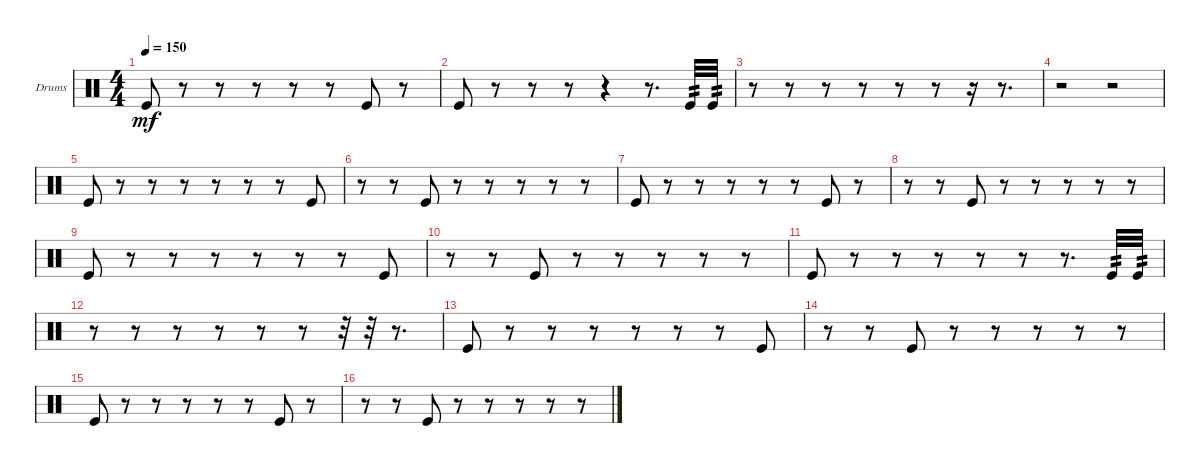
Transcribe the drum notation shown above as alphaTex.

\bracketExtendMode groupsimilarinstruments
\firstSystemTrackNameOrientation horizontal
\otherSystemsTrackNameOrientation horizontal
\track ("Drumkit Kick" "Drums ") {instrument percussion}
\staff {score}
\articulation defaults
\ts (4 4)
\tempo 150
\clef neutral
\scale
0.333333
\ks c "Kick (hit)".8{dy mf}
r.8 r.8 r.8 r.8 r.8 "Kick (hit)".8 r.8 |
\scale
0.333333 "Kick (hit)".8 r.8 r.8 r.8 r.4 r.8{d} "Kick (hit)".32{tp 2} "Kick (hit)".32{tp 2} |
\scale
0.333333 r.8 r.8 r.8 r.8 r.8 r.8 r.16 r.8{d} |
\scale
0.333333 r.2 r.2 |
\scale
0.333333 "Kick (hit)".8 r.8 r.8 r.8 r.8 r.8 r.8 "Kick (hit)".8 |
\scale
0.333333 r.8 r.8 "Kick (hit)".8 r.8 r.8 r.8 r.8 r.8 |
\scale
0.333333 "Kick (hit)".8 r.8 r.8 r.8 r.8 r.8 "Kick (hit)".8 r.8 |
\scale
0.333333 r.8 r.8 "Kick (hit)".8 r.8 r.8 r.8 r.8 r.8 |
\scale
0.333333 "Kick (hit)".8 r.8 r.8 r.8 r.8 r.8 r.8 "Kick (hit)".8 |
\scale
0.333333 r.8 r.8 "Kick (hit)".8 r.8 r.8 r.8 r.8 r.8 |
\scale
0.333333 "Kick (hit)".8 r.8 r.8 r.8 r.8 r.8 r.8{d} "Kick (hit)".32{tp 2} "Kick (hit)".32{tp 2} |
\scale
0.333333 r.8 r.8 r.8 r.8 r.8 r.8 r.32 r.32 r.8{d} |
\scale
0.333333 "Kick (hit)".8 r.8 r.8 r.8 r.8 r.8 r.8 "Kick (hit)".8 |
\scale
0.333333 r.8 r.8 "Kick (hit)".8 r.8 r.8 r.8 r.8 r.8 |
\scale
0.333333 "Kick (hit)".8 r.8 r.8 r.8 r.8 r.8 "Kick (hit)".8 r.8 |
\scale
0.333333 r.8 r.8 "Kick (hit)".8 r.8 r.8 r.8 r.8 r.8
